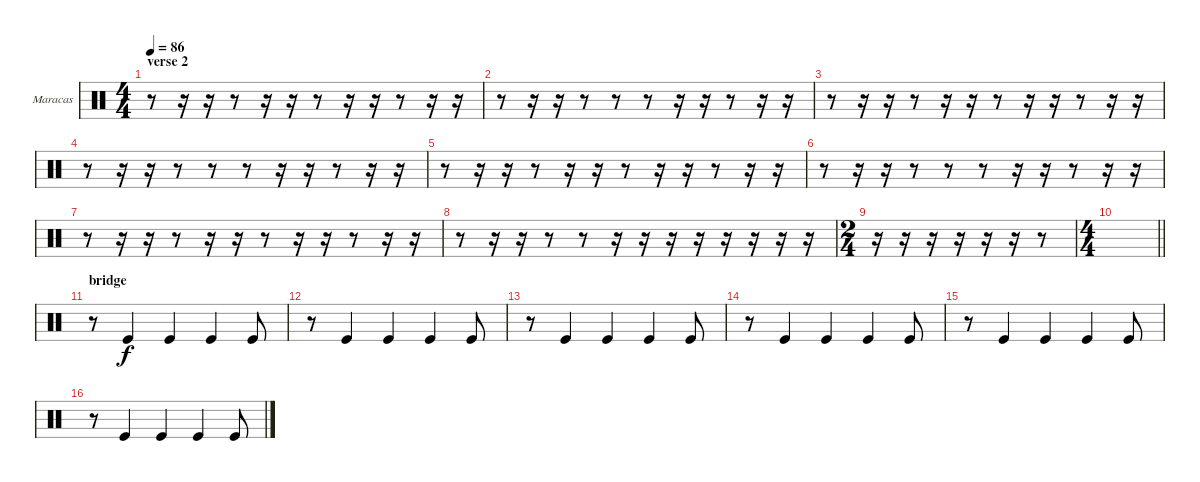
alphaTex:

\bracketExtendMode groupsimilarinstruments
\firstSystemTrackNameOrientation horizontal
\otherSystemsTrackNameOrientation horizontal
\track ("Maracas" "Maracas") {instrument percussion}
\staff {score}
\articulation defaults
\ts (4 4)
\section ("" "verse 2")
\tempo 86
\clef neutral
\ks c
r.8{dy f} r.16 r.16 r.8 r.16 r.16 r.8 r.16 r.16 r.8 r.16 r.16 |
r.8 r.16 r.16 r.8 r.8 r.8 r.16 r.16 r.8 r.16 r.16 |
r.8 r.16 r.16 r.8 r.16 r.16 r.8 r.16 r.16 r.8 r.16 r.16 |
r.8 r.16 r.16 r.8 r.8 r.8 r.16 r.16 r.8 r.16 r.16 |
r.8 r.16 r.16 r.8 r.16 r.16 r.8 r.16 r.16 r.8 r.16 r.16 |
r.8 r.16 r.16 r.8 r.8 r.8 r.16 r.16 r.8 r.16 r.16 |
r.8 r.16 r.16 r.8 r.16 r.16 r.8 r.16 r.16 r.8 r.16 r.16 |
r.8 r.16 r.16 r.8 r.8 r.16 r.16 r.16 r.16 r.16 r.16 r.16 r.16 |
\ts (2 4)
r.16 r.16 r.16 r.16 r.16 r.16 r.8 |
\ts (4 4)
\barLineRight lightlight
|
\section ("" "bridge")
r.8 "Kick (hit)".4 "Kick (hit)".4 "Kick (hit)".4 "Kick (hit)".8 |
r.8 "Kick (hit)".4 "Kick (hit)".4 "Kick (hit)".4 "Kick (hit)".8 |
r.8 "Kick (hit)".4 "Kick (hit)".4 "Kick (hit)".4 "Kick (hit)".8 |
r.8 "Kick (hit)".4 "Kick (hit)".4 "Kick (hit)".4 "Kick (hit)".8 |
r.8 "Kick (hit)".4 "Kick (hit)".4 "Kick (hit)".4 "Kick (hit)".8 |
r.8 "Kick (hit)".4 "Kick (hit)".4 "Kick (hit)".4 "Kick (hit)".8
